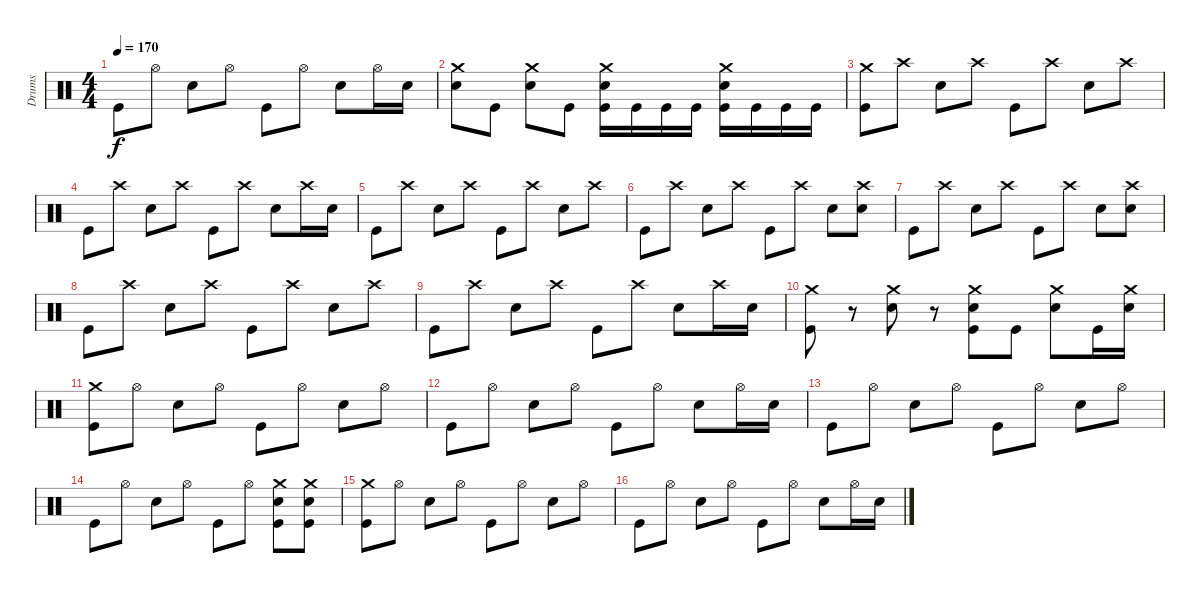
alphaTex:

\track ("Drums" "Drums") {instrument percussion}
\staff {score}
\articulation defaults
\ts (4 4)
\tempo 170
\clef neutral
\ks c "Kick (hit)".8{dy f} "Hi-Hat (open)".8 "Electric Snare (hit)".8 "Hi-Hat (open)".8 "Kick (hit)".8 "Hi-Hat (open)".8 "Electric Snare (hit)".8 "Hi-Hat (open)".16 "Electric Snare (hit)".16
|
("Crash medium (hit)" "Electric Snare (hit)").8 "Kick (hit)".8 ("Crash medium (hit)" "Electric Snare (hit)").8 "Kick (hit)".8 ("Crash medium (hit)" "Electric Snare (hit)" "Kick (hit)").16 "Kick (hit)".16 "Kick (hit)".16 "Kick (hit)".16 ("Crash medium (hit)" "Electric Snare (hit)" "Kick (hit)").16 "Kick (hit)".16 "Kick (hit)".16 "Kick (hit)".16 |
("Crash medium (hit)" "Kick (hit)").8 "Crash high (hit)".8 "Electric Snare (hit)".8 "Crash high (hit)".8 "Kick (hit)".8 "Crash high (hit)".8 "Electric Snare (hit)".8 "Crash high (hit)".8 |
"Kick (hit)".8 "Crash high (hit)".8 "Electric Snare (hit)".8 "Crash high (hit)".8 "Kick (hit)".8 "Crash high (hit)".8 "Electric Snare (hit)".8 "Crash high (hit)".16 "Electric Snare (hit)".16 |
"Kick (hit)".8 "Crash high (hit)".8 "Electric Snare (hit)".8 "Crash high (hit)".8 "Kick (hit)".8 "Crash high (hit)".8 "Electric Snare (hit)".8 "Crash high (hit)".8 |
"Kick (hit)".8 "Crash high (hit)".8 "Electric Snare (hit)".8 "Crash high (hit)".8 "Kick (hit)".8 "Crash high (hit)".8 "Electric Snare (hit)".8 ("Crash high (hit)" "Electric Snare (hit)").8 |
"Kick (hit)".8 "Crash high (hit)".8 "Electric Snare (hit)".8 "Crash high (hit)".8 "Kick (hit)".8 "Crash high (hit)".8 "Electric Snare (hit)".8 ("Crash high (hit)" "Electric Snare (hit)").8 |
"Kick (hit)".8 "Crash high (hit)".8 "Electric Snare (hit)".8 "Crash high (hit)".8 "Kick (hit)".8 "Crash high (hit)".8 "Electric Snare (hit)".8 "Crash high (hit)".8 |
"Kick (hit)".8 "Crash high (hit)".8 "Electric Snare (hit)".8 "Crash high (hit)".8 "Kick (hit)".8 "Crash high (hit)".8 "Electric Snare (hit)".8 "Crash high (hit)".16 "Electric Snare (hit)".16 |
("Crash medium (hit)" "Kick (hit)").8 r.8 ("Crash medium (hit)" "Electric Snare (hit)").8 r.8 ("Crash medium (hit)" "Electric Snare (hit)" "Kick (hit)").8 "Kick (hit)".8 ("Crash medium (hit)" "Electric Snare (hit)").8 "Kick (hit)".16 ("Crash medium (hit)" "Electric Snare (hit)").16 |
("Crash medium (hit)" "Kick (hit)").8 "Hi-Hat (open)".8 "Electric Snare (hit)".8 "Hi-Hat (open)".8 "Kick (hit)".8 "Hi-Hat (open)".8 "Electric Snare (hit)".8 "Hi-Hat (open)".8 |
"Kick (hit)".8 "Hi-Hat (open)".8 "Electric Snare (hit)".8 "Hi-Hat (open)".8 "Kick (hit)".8 "Hi-Hat (open)".8 "Electric Snare (hit)".8 "Hi-Hat (open)".16 "Electric Snare (hit)".16 |
"Kick (hit)".8 "Hi-Hat (open)".8 "Electric Snare (hit)".8 "Hi-Hat (open)".8 "Kick (hit)".8 "Hi-Hat (open)".8 "Electric Snare (hit)".8 "Hi-Hat (open)".8 |
"Kick (hit)".8 "Hi-Hat (open)".8 "Electric Snare (hit)".8 "Hi-Hat (open)".8 "Kick (hit)".8 "Hi-Hat (open)".8 ("Crash medium (hit)" "Electric Snare (hit)" "Kick (hit)").8 ("Crash medium (hit)" "Electric Snare (hit)" "Kick (hit)").8 |
("Crash medium (hit)" "Kick (hit)").8 "Hi-Hat (open)".8 "Electric Snare (hit)".8 "Hi-Hat (open)".8 "Kick (hit)".8 "Hi-Hat (open)".8 "Electric Snare (hit)".8 "Hi-Hat (open)".8 |
"Kick (hit)".8 "Hi-Hat (open)".8 "Electric Snare (hit)".8 "Hi-Hat (open)".8 "Kick (hit)".8 "Hi-Hat (open)".8 "Electric Snare (hit)".8 "Hi-Hat (open)".16 "Electric Snare (hit)".16
